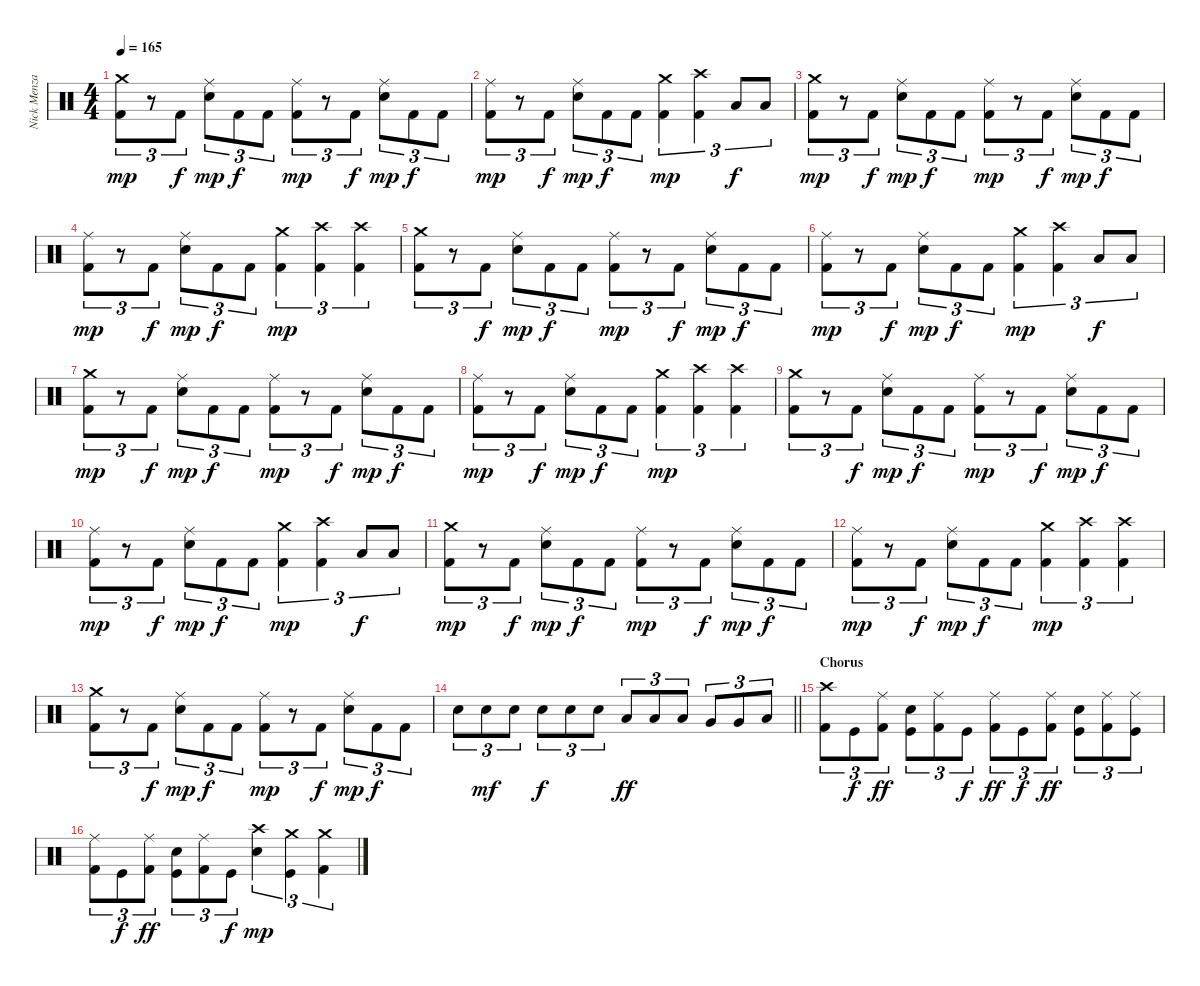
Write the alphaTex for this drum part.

\track ("Nick Menza" "Nick Menza") {solo instrument percussion}
\staff {score}
\articulation defaults
\ts (4 4)
\tempo 165
\clef neutral
\ks c
("Crash medium (hit)" "Kick (hit) 2").8{tu (3 2) dy mp} r.8{tu (3 2)} "Kick (hit) 2".8{tu (3 2) dy f} ("Ride (middle)" "Electric Snare (hit)").8{tu (3 2) dy mp} "Kick (hit) 2".8{tu (3 2) dy f} "Kick (hit) 2".8{tu (3 2)} ("Ride (middle)" "Kick (hit) 2").8{tu (3 2) dy mp} r.8{tu (3 2)} "Kick (hit) 2".8{tu (3 2) dy f} ("Ride (middle)" "Electric Snare (hit)").8{tu (3 2) dy mp} "Kick (hit) 2".8{tu (3 2) dy f} "Kick (hit) 2".8{tu (3 2)} |
("Ride (middle)" "Kick (hit) 2").8{tu (3 2) dy mp} r.8{tu (3 2)} "Kick (hit) 2".8{tu (3 2) dy f} ("Ride (middle)" "Electric Snare (hit)").8{tu (3 2) dy mp} "Kick (hit) 2".8{tu (3 2) dy f} "Kick (hit) 2".8{tu (3 2)} ("Crash medium (hit)" "Kick (hit) 2").4{tu (3 2) dy mp} ("Crash high (hit)" "Kick (hit) 2").4{tu (3 2)} "Low Tom (hit)".8{tu (3 2) dy f} "Low Tom (hit)".8{tu (3 2)} |
("Crash medium (hit)" "Kick (hit) 2").8{tu (3 2) dy mp} r.8{tu (3 2)} "Kick (hit) 2".8{tu (3 2) dy f} ("Ride (middle)" "Electric Snare (hit)").8{tu (3 2) dy mp} "Kick (hit) 2".8{tu (3 2) dy f} "Kick (hit) 2".8{tu (3 2)} ("Ride (middle)" "Kick (hit) 2").8{tu (3 2) dy mp} r.8{tu (3 2)} "Kick (hit) 2".8{tu (3 2) dy f} ("Ride (middle)" "Electric Snare (hit)").8{tu (3 2) dy mp} "Kick (hit) 2".8{tu (3 2) dy f} "Kick (hit) 2".8{tu (3 2)} |
("Ride (middle)" "Kick (hit) 2").8{tu (3 2) dy mp} r.8{tu (3 2)} "Kick (hit) 2".8{tu (3 2) dy f} ("Ride (middle)" "Electric Snare (hit)").8{tu (3 2) dy mp} "Kick (hit) 2".8{tu (3 2) dy f} "Kick (hit) 2".8{tu (3 2)} ("Crash medium (hit)" "Kick (hit) 2").4{tu (3 2) dy mp} ("Crash high (hit)" "Kick (hit) 2").4{tu (3 2)} ("Crash high (hit)" "Kick (hit) 2").4{tu (3 2)} |
("Crash medium (hit)" "Kick (hit) 2").8{tu (3 2)} r.8{tu (3 2)} "Kick (hit) 2".8{tu (3 2) dy f} ("Ride (middle)" "Electric Snare (hit)").8{tu (3 2) dy mp} "Kick (hit) 2".8{tu (3 2) dy f} "Kick (hit) 2".8{tu (3 2)} ("Ride (middle)" "Kick (hit) 2").8{tu (3 2) dy mp} r.8{tu (3 2)} "Kick (hit) 2".8{tu (3 2) dy f} ("Ride (middle)" "Electric Snare (hit)").8{tu (3 2) dy mp} "Kick (hit) 2".8{tu (3 2) dy f} "Kick (hit) 2".8{tu (3 2)} |
("Ride (middle)" "Kick (hit) 2").8{tu (3 2) dy mp} r.8{tu (3 2)} "Kick (hit) 2".8{tu (3 2) dy f} ("Ride (middle)" "Electric Snare (hit)").8{tu (3 2) dy mp} "Kick (hit) 2".8{tu (3 2) dy f} "Kick (hit) 2".8{tu (3 2)} ("Crash medium (hit)" "Kick (hit) 2").4{tu (3 2) dy mp} ("Crash high (hit)" "Kick (hit) 2").4{tu (3 2)} "Low Tom (hit)".8{tu (3 2) dy f} "Low Tom (hit)".8{tu (3 2)} |
("Crash medium (hit)" "Kick (hit) 2").8{tu (3 2) dy mp} r.8{tu (3 2)} "Kick (hit) 2".8{tu (3 2) dy f} ("Ride (middle)" "Electric Snare (hit)").8{tu (3 2) dy mp} "Kick (hit) 2".8{tu (3 2) dy f} "Kick (hit) 2".8{tu (3 2)} ("Ride (middle)" "Kick (hit) 2").8{tu (3 2) dy mp} r.8{tu (3 2)} "Kick (hit) 2".8{tu (3 2) dy f} ("Ride (middle)" "Electric Snare (hit)").8{tu (3 2) dy mp} "Kick (hit) 2".8{tu (3 2) dy f} "Kick (hit) 2".8{tu (3 2)} |
("Ride (middle)" "Kick (hit) 2").8{tu (3 2) dy mp} r.8{tu (3 2)} "Kick (hit) 2".8{tu (3 2) dy f} ("Ride (middle)" "Electric Snare (hit)").8{tu (3 2) dy mp} "Kick (hit) 2".8{tu (3 2) dy f} "Kick (hit) 2".8{tu (3 2)} ("Crash medium (hit)" "Kick (hit) 2").4{tu (3 2) dy mp} ("Crash high (hit)" "Kick (hit) 2").4{tu (3 2)} ("Crash high (hit)" "Kick (hit) 2").4{tu (3 2)} |
("Crash medium (hit)" "Kick (hit) 2").8{tu (3 2)} r.8{tu (3 2)} "Kick (hit) 2".8{tu (3 2) dy f} ("Ride (middle)" "Electric Snare (hit)").8{tu (3 2) dy mp} "Kick (hit) 2".8{tu (3 2) dy f} "Kick (hit) 2".8{tu (3 2)} ("Ride (middle)" "Kick (hit) 2").8{tu (3 2) dy mp} r.8{tu (3 2)} "Kick (hit) 2".8{tu (3 2) dy f} ("Ride (middle)" "Electric Snare (hit)").8{tu (3 2) dy mp} "Kick (hit) 2".8{tu (3 2) dy f} "Kick (hit) 2".8{tu (3 2)} |
("Ride (middle)" "Kick (hit) 2").8{tu (3 2) dy mp} r.8{tu (3 2)} "Kick (hit) 2".8{tu (3 2) dy f} ("Ride (middle)" "Electric Snare (hit)").8{tu (3 2) dy mp} "Kick (hit) 2".8{tu (3 2) dy f} "Kick (hit) 2".8{tu (3 2)} ("Crash medium (hit)" "Kick (hit) 2").4{tu (3 2) dy mp} ("Crash high (hit)" "Kick (hit) 2").4{tu (3 2)} "Low Tom (hit)".8{tu (3 2) dy f} "Low Tom (hit)".8{tu (3 2)} |
("Crash medium (hit)" "Kick (hit) 2").8{tu (3 2) dy mp} r.8{tu (3 2)} "Kick (hit) 2".8{tu (3 2) dy f} ("Ride (middle)" "Electric Snare (hit)").8{tu (3 2) dy mp} "Kick (hit) 2".8{tu (3 2) dy f} "Kick (hit) 2".8{tu (3 2)} ("Ride (middle)" "Kick (hit) 2").8{tu (3 2) dy mp} r.8{tu (3 2)} "Kick (hit) 2".8{tu (3 2) dy f} ("Ride (middle)" "Electric Snare (hit)").8{tu (3 2) dy mp} "Kick (hit) 2".8{tu (3 2) dy f} "Kick (hit) 2".8{tu (3 2)} |
("Ride (middle)" "Kick (hit) 2").8{tu (3 2) dy mp} r.8{tu (3 2)} "Kick (hit) 2".8{tu (3 2) dy f} ("Ride (middle)" "Electric Snare (hit)").8{tu (3 2) dy mp} "Kick (hit) 2".8{tu (3 2) dy f} "Kick (hit) 2".8{tu (3 2)} ("Crash medium (hit)" "Kick (hit) 2").4{tu (3 2) dy mp} ("Crash high (hit)" "Kick (hit) 2").4{tu (3 2)} ("Crash high (hit)" "Kick (hit) 2").4{tu (3 2)} |
("Crash medium (hit)" "Kick (hit) 2").8{tu (3 2)} r.8{tu (3 2)} "Kick (hit) 2".8{tu (3 2) dy f} ("Ride (middle)" "Electric Snare (hit)").8{tu (3 2) dy mp} "Kick (hit) 2".8{tu (3 2) dy f} "Kick (hit) 2".8{tu (3 2)} ("Ride (middle)" "Kick (hit) 2").8{tu (3 2) dy mp} r.8{tu (3 2)} "Kick (hit) 2".8{tu (3 2) dy f} ("Ride (middle)" "Electric Snare (hit)").8{tu (3 2) dy mp} "Kick (hit) 2".8{tu (3 2) dy f} "Kick (hit) 2".8{tu (3 2)} |
\barLineRight lightlight "Electric Snare (hit)".8{tu (3 2)} "Electric Snare (hit)".8{tu (3 2) dy mf} "Electric Snare (hit)".8{tu (3 2)} "Electric Snare (hit)".8{tu (3 2) dy f} "Electric Snare (hit)".8{tu (3 2)} "Electric Snare (hit)".8{tu (3 2)} "Low Tom (hit)".8{tu (3 2) dy ff} "Low Tom (hit)".8{tu (3 2)} "Low Tom (hit)".8{tu (3 2)} "Very Low Tom (hit)".8{tu (3 2)} "Very Low Tom (hit)".8{tu (3 2)} "Low Floor Tom (hit)".8{tu (3 2)}
|
\section ("" "Chorus")
("Crash high (hit)" "Kick (hit) 2").8{tu (3 2)} "Kick (hit)".8{tu (3 2) dy f} ("Ride (middle)" "Kick (hit) 2").8{tu (3 2) dy ff} ("Electric Snare (hit)" "Kick (hit)").8{tu (3 2)} ("Ride (middle)" "Kick (hit) 2").8{tu (3 2)} "Kick (hit)".8{tu (3 2) dy f} ("Ride (middle)" "Kick (hit) 2").8{tu (3 2) dy ff} "Kick (hit)".8{tu (3 2) dy f} ("Ride (middle)" "Kick (hit) 2").8{tu (3 2) dy ff} ("Electric Snare (hit)" "Kick (hit)").8{tu (3 2)} ("Ride (middle)" "Kick (hit) 2").8{tu (3 2)} ("Ride (middle)" "Kick (hit)").8{tu (3 2)} |
("Ride (middle)" "Kick (hit) 2").8{tu (3 2)} "Kick (hit)".8{tu (3 2) dy f} ("Ride (middle)" "Kick (hit) 2").8{tu (3 2) dy ff} ("Electric Snare (hit)" "Kick (hit)").8{tu (3 2)} ("Ride (middle)" "Kick (hit) 2").8{tu (3 2)} "Kick (hit)".8{tu (3 2) dy f} ("Crash high (hit)" "Electric Snare (hit)").4{tu (3 2) dy mp} ("Crash medium (hit)" "Kick (hit)").4{tu (3 2)} ("Crash medium (hit)" "Kick (hit) 2").4{tu (3 2)}
